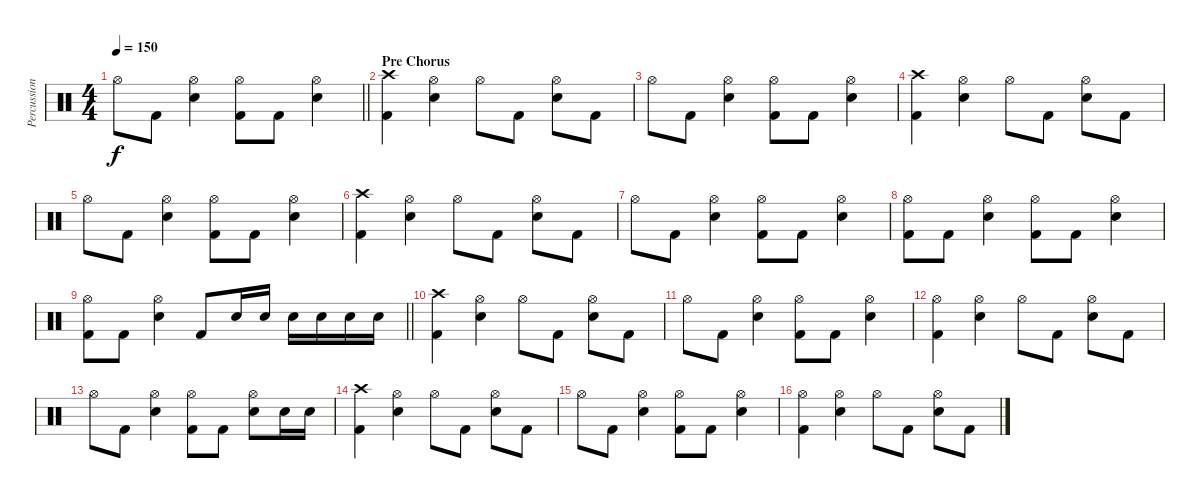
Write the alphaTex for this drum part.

\track ("Percussion" "Percussion") {instrument percussion}
\staff {score}
\articulation defaults
\ts (4 4)
\tempo 150
\clef neutral
\barLineRight lightlight
\ks c "Hi-Hat (open)".8{dy f} "Kick (hit) 2".8
("Hi-Hat (open)" "Electric Snare (hit)").4 ("Hi-Hat (open)" "Kick (hit) 2").8 "Kick (hit) 2".8 ("Hi-Hat (open)" "Electric Snare (hit)").4 |
\section ("" "Pre Chorus")
("Crash high (hit)" "Kick (hit) 2").4 ("Hi-Hat (open)" "Electric Snare (hit)").4 "Hi-Hat (open)".8 "Kick (hit) 2".8 ("Hi-Hat (open)" "Electric Snare (hit)").8 "Kick (hit) 2".8 |
"Hi-Hat (open)".8 "Kick (hit) 2".8 ("Hi-Hat (open)" "Electric Snare (hit)").4 ("Hi-Hat (open)" "Kick (hit) 2").8 "Kick (hit) 2".8 ("Hi-Hat (open)" "Electric Snare (hit)").4 |
("Crash high (hit)" "Kick (hit) 2").4 ("Hi-Hat (open)" "Electric Snare (hit)").4 "Hi-Hat (open)".8 "Kick (hit) 2".8 ("Hi-Hat (open)" "Electric Snare (hit)").8 "Kick (hit) 2".8 |
"Hi-Hat (open)".8 "Kick (hit) 2".8 ("Hi-Hat (open)" "Electric Snare (hit)").4 ("Hi-Hat (open)" "Kick (hit) 2").8 "Kick (hit) 2".8 ("Hi-Hat (open)" "Electric Snare (hit)").4 |
("Crash high (hit)" "Kick (hit) 2").4 ("Hi-Hat (open)" "Electric Snare (hit)").4 "Hi-Hat (open)".8 "Kick (hit) 2".8 ("Hi-Hat (open)" "Electric Snare (hit)").8 "Kick (hit) 2".8 |
"Hi-Hat (open)".8 "Kick (hit) 2".8 ("Hi-Hat (open)" "Electric Snare (hit)").4 ("Hi-Hat (open)" "Kick (hit) 2").8 "Kick (hit) 2".8 ("Hi-Hat (open)" "Electric Snare (hit)").4 |
("Hi-Hat (open)" "Kick (hit) 2").8 "Kick (hit) 2".8 ("Hi-Hat (open)" "Electric Snare (hit)").4 ("Hi-Hat (open)" "Kick (hit) 2").8 "Kick (hit) 2".8 ("Hi-Hat (open)" "Electric Snare (hit)").4 |
\barLineRight lightlight
("Hi-Hat (open)" "Kick (hit) 2").8 "Kick (hit) 2".8 ("Hi-Hat (open)" "Electric Snare (hit)").4 "Kick (hit) 2".8 "Electric Snare (hit)".16 "Electric Snare (hit)".16 "Electric Snare (hit)".16 "Electric Snare (hit)".16 "Electric Snare (hit)".16 "Electric Snare (hit)".16 |
("Crash high (hit)" "Kick (hit) 2").4{volume 13} ("Hi-Hat (open)" "Electric Snare (hit)").4 "Hi-Hat (open)".8 "Kick (hit) 2".8 ("Hi-Hat (open)" "Electric Snare (hit)").8 "Kick (hit) 2".8 |
"Hi-Hat (open)".8 "Kick (hit) 2".8 ("Hi-Hat (open)" "Electric Snare (hit)").4 ("Hi-Hat (open)" "Kick (hit) 2").8 "Kick (hit) 2".8 ("Hi-Hat (open)" "Electric Snare (hit)").4 |
("Hi-Hat (open)" "Kick (hit) 2").4 ("Hi-Hat (open)" "Electric Snare (hit)").4 "Hi-Hat (open)".8 "Kick (hit) 2".8 ("Hi-Hat (open)" "Electric Snare (hit)").8 "Kick (hit) 2".8 |
"Hi-Hat (open)".8 "Kick (hit) 2".8 ("Hi-Hat (open)" "Electric Snare (hit)").4 ("Hi-Hat (open)" "Kick (hit) 2").8 "Kick (hit) 2".8 ("Hi-Hat (open)" "Electric Snare (hit)").8 "Electric Snare (hit)".16 "Electric Snare (hit)".16 |
("Crash high (hit)" "Kick (hit) 2").4 ("Hi-Hat (open)" "Electric Snare (hit)").4 "Hi-Hat (open)".8 "Kick (hit) 2".8 ("Hi-Hat (open)" "Electric Snare (hit)").8 "Kick (hit) 2".8 |
"Hi-Hat (open)".8 "Kick (hit) 2".8 ("Hi-Hat (open)" "Electric Snare (hit)").4 ("Hi-Hat (open)" "Kick (hit) 2").8 "Kick (hit) 2".8 ("Hi-Hat (open)" "Electric Snare (hit)").4 |
("Hi-Hat (open)" "Kick (hit) 2").4 ("Hi-Hat (open)" "Electric Snare (hit)").4 "Hi-Hat (open)".8 "Kick (hit) 2".8 ("Hi-Hat (open)" "Electric Snare (hit)").8 "Kick (hit) 2".8
